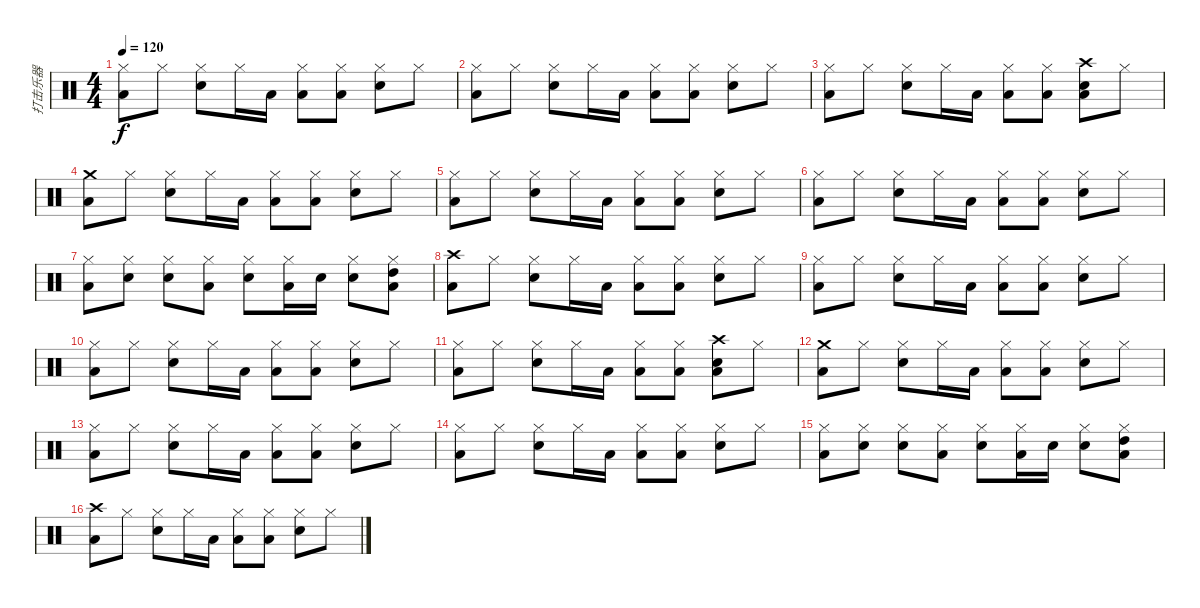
\track ("打击乐器" "打击乐器") {instrument percussion}
\staff {score}
\articulation defaults
\ts (4 4)
\tempo 120
\clef neutral
\ks c
("Hi-Hat (closed)" "Low Floor Tom (hit)").8{dy f} "Hi-Hat (closed)".8 ("Hi-Hat (closed)" "Electric Snare (hit)").8 "Hi-Hat (closed)".16 "Low Floor Tom (hit)".16 ("Hi-Hat (closed)" "Low Floor Tom (hit)").8 ("Hi-Hat (closed)" "Low Floor Tom (hit)").8 ("Hi-Hat (closed)" "Electric Snare (hit)").8 "Hi-Hat (closed)".8 |
("Hi-Hat (closed)" "Low Floor Tom (hit)").8 "Hi-Hat (closed)".8 ("Hi-Hat (closed)" "Electric Snare (hit)").8 "Hi-Hat (closed)".16 "Low Floor Tom (hit)".16 ("Hi-Hat (closed)" "Low Floor Tom (hit)").8 ("Hi-Hat (closed)" "Low Floor Tom (hit)").8 ("Hi-Hat (closed)" "Electric Snare (hit)").8 "Hi-Hat (closed)".8 |
("Hi-Hat (closed)" "Low Floor Tom (hit)").8 "Hi-Hat (closed)".8 ("Hi-Hat (closed)" "Electric Snare (hit)").8 "Hi-Hat (closed)".16 "Low Floor Tom (hit)".16 ("Hi-Hat (closed)" "Low Floor Tom (hit)").8 ("Hi-Hat (closed)" "Low Floor Tom (hit)").8 ("Crash high (hit)" "Electric Snare (hit)" "Low Floor Tom (hit)").8 "Hi-Hat (closed)".8 |
("Crash medium (hit)" "Low Floor Tom (hit)").8 "Hi-Hat (closed)".8 ("Hi-Hat (closed)" "Electric Snare (hit)").8 "Hi-Hat (closed)".16 "Low Floor Tom (hit)".16 ("Hi-Hat (closed)" "Low Floor Tom (hit)").8 ("Hi-Hat (closed)" "Low Floor Tom (hit)").8 ("Hi-Hat (closed)" "Electric Snare (hit)").8 "Hi-Hat (closed)".8 |
("Hi-Hat (closed)" "Low Floor Tom (hit)").8 "Hi-Hat (closed)".8 ("Hi-Hat (closed)" "Electric Snare (hit)").8 "Hi-Hat (closed)".16 "Low Floor Tom (hit)".16 ("Hi-Hat (closed)" "Low Floor Tom (hit)").8 ("Hi-Hat (closed)" "Low Floor Tom (hit)").8 ("Hi-Hat (closed)" "Electric Snare (hit)").8 "Hi-Hat (closed)".8 |
("Hi-Hat (closed)" "Low Floor Tom (hit)").8 "Hi-Hat (closed)".8 ("Hi-Hat (closed)" "Electric Snare (hit)").8 "Hi-Hat (closed)".16 "Low Floor Tom (hit)".16 ("Hi-Hat (closed)" "Low Floor Tom (hit)").8 ("Hi-Hat (closed)" "Low Floor Tom (hit)").8 ("Hi-Hat (closed)" "Electric Snare (hit)").8 "Hi-Hat (closed)".8 |
("Hi-Hat (closed)" "Low Floor Tom (hit)").8 ("Hi-Hat (closed)" "Electric Snare (hit)").8 ("Hi-Hat (closed)" "Electric Snare (hit)").8 ("Hi-Hat (closed)" "Low Floor Tom (hit)").8 ("Hi-Hat (closed)" "Electric Snare (hit)").8 ("Hi-Hat (closed)" "Low Floor Tom (hit)").16 "Electric Snare (hit)".16 ("Hi-Hat (closed)" "Electric Snare (hit)").8 ("Hi-Hat (closed)" "High Tom (hit)" "Low Floor Tom (hit)").8 |
("Crash high (hit)" "Low Floor Tom (hit)").8 "Hi-Hat (closed)".8 ("Hi-Hat (closed)" "Electric Snare (hit)").8 "Hi-Hat (closed)".16 "Low Floor Tom (hit)".16 ("Hi-Hat (closed)" "Low Floor Tom (hit)").8 ("Hi-Hat (closed)" "Low Floor Tom (hit)").8 ("Hi-Hat (closed)" "Electric Snare (hit)").8 "Hi-Hat (closed)".8 |
("Hi-Hat (closed)" "Low Floor Tom (hit)").8 "Hi-Hat (closed)".8 ("Hi-Hat (closed)" "Electric Snare (hit)").8 "Hi-Hat (closed)".16 "Low Floor Tom (hit)".16 ("Hi-Hat (closed)" "Low Floor Tom (hit)").8 ("Hi-Hat (closed)" "Low Floor Tom (hit)").8 ("Hi-Hat (closed)" "Electric Snare (hit)").8 "Hi-Hat (closed)".8 |
("Hi-Hat (closed)" "Low Floor Tom (hit)").8 "Hi-Hat (closed)".8 ("Hi-Hat (closed)" "Electric Snare (hit)").8 "Hi-Hat (closed)".16 "Low Floor Tom (hit)".16 ("Hi-Hat (closed)" "Low Floor Tom (hit)").8 ("Hi-Hat (closed)" "Low Floor Tom (hit)").8 ("Hi-Hat (closed)" "Electric Snare (hit)").8 "Hi-Hat (closed)".8 |
("Hi-Hat (closed)" "Low Floor Tom (hit)").8 "Hi-Hat (closed)".8 ("Hi-Hat (closed)" "Electric Snare (hit)").8 "Hi-Hat (closed)".16 "Low Floor Tom (hit)".16 ("Hi-Hat (closed)" "Low Floor Tom (hit)").8 ("Hi-Hat (closed)" "Low Floor Tom (hit)").8 ("Crash high (hit)" "Electric Snare (hit)" "Low Floor Tom (hit)").8 "Hi-Hat (closed)".8 |
("Crash medium (hit)" "Low Floor Tom (hit)").8 "Hi-Hat (closed)".8 ("Hi-Hat (closed)" "Electric Snare (hit)").8 "Hi-Hat (closed)".16 "Low Floor Tom (hit)".16 ("Hi-Hat (closed)" "Low Floor Tom (hit)").8 ("Hi-Hat (closed)" "Low Floor Tom (hit)").8 ("Hi-Hat (closed)" "Electric Snare (hit)").8 "Hi-Hat (closed)".8 |
("Hi-Hat (closed)" "Low Floor Tom (hit)").8 "Hi-Hat (closed)".8 ("Hi-Hat (closed)" "Electric Snare (hit)").8 "Hi-Hat (closed)".16 "Low Floor Tom (hit)".16 ("Hi-Hat (closed)" "Low Floor Tom (hit)").8 ("Hi-Hat (closed)" "Low Floor Tom (hit)").8 ("Hi-Hat (closed)" "Electric Snare (hit)").8 "Hi-Hat (closed)".8 |
("Hi-Hat (closed)" "Low Floor Tom (hit)").8 "Hi-Hat (closed)".8 ("Hi-Hat (closed)" "Electric Snare (hit)").8 "Hi-Hat (closed)".16 "Low Floor Tom (hit)".16 ("Hi-Hat (closed)" "Low Floor Tom (hit)").8 ("Hi-Hat (closed)" "Low Floor Tom (hit)").8 ("Hi-Hat (closed)" "Electric Snare (hit)").8 "Hi-Hat (closed)".8 |
("Hi-Hat (closed)" "Low Floor Tom (hit)").8 ("Hi-Hat (closed)" "Electric Snare (hit)").8 ("Hi-Hat (closed)" "Electric Snare (hit)").8 ("Hi-Hat (closed)" "Low Floor Tom (hit)").8 ("Hi-Hat (closed)" "Electric Snare (hit)").8 ("Hi-Hat (closed)" "Low Floor Tom (hit)").16 "Electric Snare (hit)".16 ("Hi-Hat (closed)" "Electric Snare (hit)").8 ("Hi-Hat (closed)" "High Tom (hit)" "Low Floor Tom (hit)").8 |
("Crash high (hit)" "Low Floor Tom (hit)").8 "Hi-Hat (closed)".8 ("Hi-Hat (closed)" "Electric Snare (hit)").8 "Hi-Hat (closed)".16 "Low Floor Tom (hit)".16 ("Hi-Hat (closed)" "Low Floor Tom (hit)").8 ("Hi-Hat (closed)" "Low Floor Tom (hit)").8 ("Hi-Hat (closed)" "Electric Snare (hit)").8 "Hi-Hat (closed)".8
